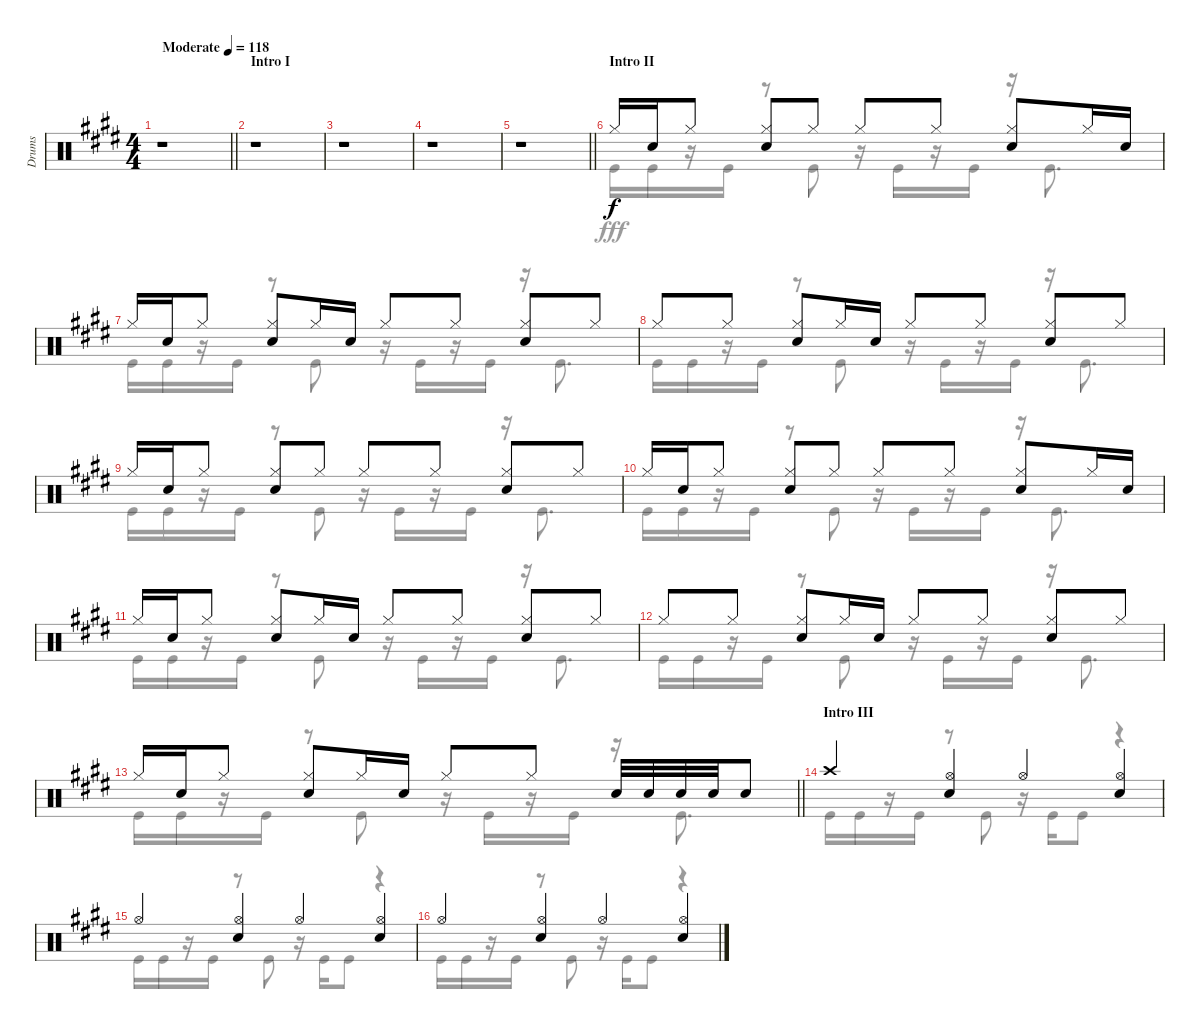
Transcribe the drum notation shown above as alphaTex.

\track ("Drums" "Drums") {instrument percussion}
\staff {score}
\articulation defaults
\voice
\ts (4 4)
\tempo (118 "Moderate")
\clef neutral
\barLineRight lightlight
\ks e
r.1{dy f} |
\section ("" "Intro I")
r.1 |
r.1 |
r.1 |
\barLineRight lightlight
r.1 |
\section ("" "Intro II")
"Hi-Hat (closed)".16 "Snare (hit) 2".16 "Hi-Hat (closed)".8 ("Hi-Hat (closed)" "Snare (hit) 2").8 "Hi-Hat (closed)".8 "Hi-Hat (closed)".8 "Hi-Hat (closed)".8 ("Hi-Hat (closed)" "Snare (hit) 2").8 "Hi-Hat (closed)".16 "Snare (hit) 2".16 |
"Hi-Hat (closed)".16 "Snare (hit) 2".16 "Hi-Hat (closed)".8 ("Hi-Hat (closed)" "Snare (hit) 2").8 "Hi-Hat (closed)".16 "Snare (hit) 2".16 "Hi-Hat (closed)".8 "Hi-Hat (closed)".8 ("Hi-Hat (closed)" "Snare (hit) 2").8 "Hi-Hat (closed)".8 |
"Hi-Hat (closed)".8 "Hi-Hat (closed)".8 ("Hi-Hat (closed)" "Snare (hit) 2").8 "Hi-Hat (closed)".16 "Snare (hit) 2".16 "Hi-Hat (closed)".8 "Hi-Hat (closed)".8 ("Hi-Hat (closed)" "Snare (hit) 2").8 "Hi-Hat (closed)".8 |
"Hi-Hat (closed)".16 "Snare (hit) 2".16 "Hi-Hat (closed)".8 ("Hi-Hat (closed)" "Snare (hit) 2").8 "Hi-Hat (closed)".8 "Hi-Hat (closed)".8 "Hi-Hat (closed)".8 ("Hi-Hat (closed)" "Snare (hit) 2").8 "Hi-Hat (closed)".8 |
"Hi-Hat (closed)".16 "Snare (hit) 2".16 "Hi-Hat (closed)".8 ("Hi-Hat (closed)" "Snare (hit) 2").8 "Hi-Hat (closed)".8 "Hi-Hat (closed)".8 "Hi-Hat (closed)".8 ("Hi-Hat (closed)" "Snare (hit) 2").8 "Hi-Hat (closed)".16 "Snare (hit) 2".16 |
"Hi-Hat (closed)".16 "Snare (hit) 2".16 "Hi-Hat (closed)".8 ("Hi-Hat (closed)" "Snare (hit) 2").8 "Hi-Hat (closed)".16 "Snare (hit) 2".16 "Hi-Hat (closed)".8 "Hi-Hat (closed)".8 ("Hi-Hat (closed)" "Snare (hit) 2").8 "Hi-Hat (closed)".8 |
"Hi-Hat (closed)".8 "Hi-Hat (closed)".8 ("Hi-Hat (closed)" "Snare (hit) 2").8 "Hi-Hat (closed)".16 "Snare (hit) 2".16 "Hi-Hat (closed)".8 "Hi-Hat (closed)".8 ("Hi-Hat (closed)" "Snare (hit) 2").8 "Hi-Hat (closed)".8 |
\barLineRight lightlight "Hi-Hat (closed)".16 "Snare (hit) 2".16 "Hi-Hat (closed)".8
("Hi-Hat (closed)" "Snare (hit) 2").8 "Hi-Hat (closed)".16 "Snare (hit) 2".16 "Hi-Hat (closed)".8 "Hi-Hat (closed)".8 "Snare (hit) 2".32 "Snare (hit) 2".32 "Snare (hit) 2".32 "Snare (hit) 2".32 "Snare (hit) 2".8 |
\section ("" "Intro III")
"Crash high (hit)".4 ("Hi-Hat (open)" "Snare (hit) 2").4 "Hi-Hat (open)".4 ("Hi-Hat (open)" "Snare (hit) 2").4 |
"Hi-Hat (open)".4 ("Hi-Hat (open)" "Snare (hit) 2").4 "Hi-Hat (open)".4 ("Hi-Hat (open)" "Snare (hit) 2").4 |
"Hi-Hat (open)".4 ("Hi-Hat (open)" "Snare (hit) 2").4 "Hi-Hat (open)".4 ("Hi-Hat (open)" "Snare (hit) 2").4
\voice
\clef neutral
\ottava regular
\simile none
\barLineRight lightlight
\ks e
r.1{dy fff} |
r.1 |
r.1 |
r.1 |
\barLineRight lightlight
r.1 |
"Kick (hit)".16 "Kick (hit)".16 r.16 "Kick (hit)".16 r.8 "Kick (hit)".8 r.16 "Kick (hit)".16 r.16 "Kick (hit)".16 r.16 "Kick (hit)".8{d} |
"Kick (hit)".16 "Kick (hit)".16 r.16 "Kick (hit)".16 r.8 "Kick (hit)".8 r.16 "Kick (hit)".16 r.16 "Kick (hit)".16 r.16 "Kick (hit)".8{d} |
"Kick (hit)".16 "Kick (hit)".16 r.16 "Kick (hit)".16 r.8 "Kick (hit)".8 r.16 "Kick (hit)".16 r.16 "Kick (hit)".16 r.16 "Kick (hit)".8{d} |
"Kick (hit)".16 "Kick (hit)".16 r.16 "Kick (hit)".16 r.8 "Kick (hit)".8 r.16 "Kick (hit)".16 r.16 "Kick (hit)".16 r.16 "Kick (hit)".8{d} |
"Kick (hit)".16 "Kick (hit)".16 r.16 "Kick (hit)".16 r.8 "Kick (hit)".8 r.16 "Kick (hit)".16 r.16 "Kick (hit)".16 r.16 "Kick (hit)".8{d} |
"Kick (hit)".16 "Kick (hit)".16 r.16 "Kick (hit)".16 r.8 "Kick (hit)".8 r.16 "Kick (hit)".16 r.16 "Kick (hit)".16 r.16 "Kick (hit)".8{d} |
"Kick (hit)".16 "Kick (hit)".16 r.16 "Kick (hit)".16 r.8 "Kick (hit)".8 r.16 "Kick (hit)".16 r.16 "Kick (hit)".16 r.16 "Kick (hit)".8{d} |
\barLineRight lightlight "Kick (hit)".16 "Kick (hit)".16
r.16 "Kick (hit)".16 r.8 "Kick (hit)".8 r.16 "Kick (hit)".16 r.16 "Kick (hit)".16 r.16 "Kick (hit)".8{d} |
"Kick (hit)".16 "Kick (hit)".16 r.16 "Kick (hit)".16 r.8 "Kick (hit)".8 r.16 "Kick (hit)".16 "Kick (hit)".8 r.4 |
"Kick (hit)".16 "Kick (hit)".16 r.16 "Kick (hit)".16 r.8 "Kick (hit)".8 r.16 "Kick (hit)".16 "Kick (hit)".8 r.4 |
"Kick (hit)".16 "Kick (hit)".16 r.16 "Kick (hit)".16 r.8 "Kick (hit)".8 r.16 "Kick (hit)".16 "Kick (hit)".8 r.4
